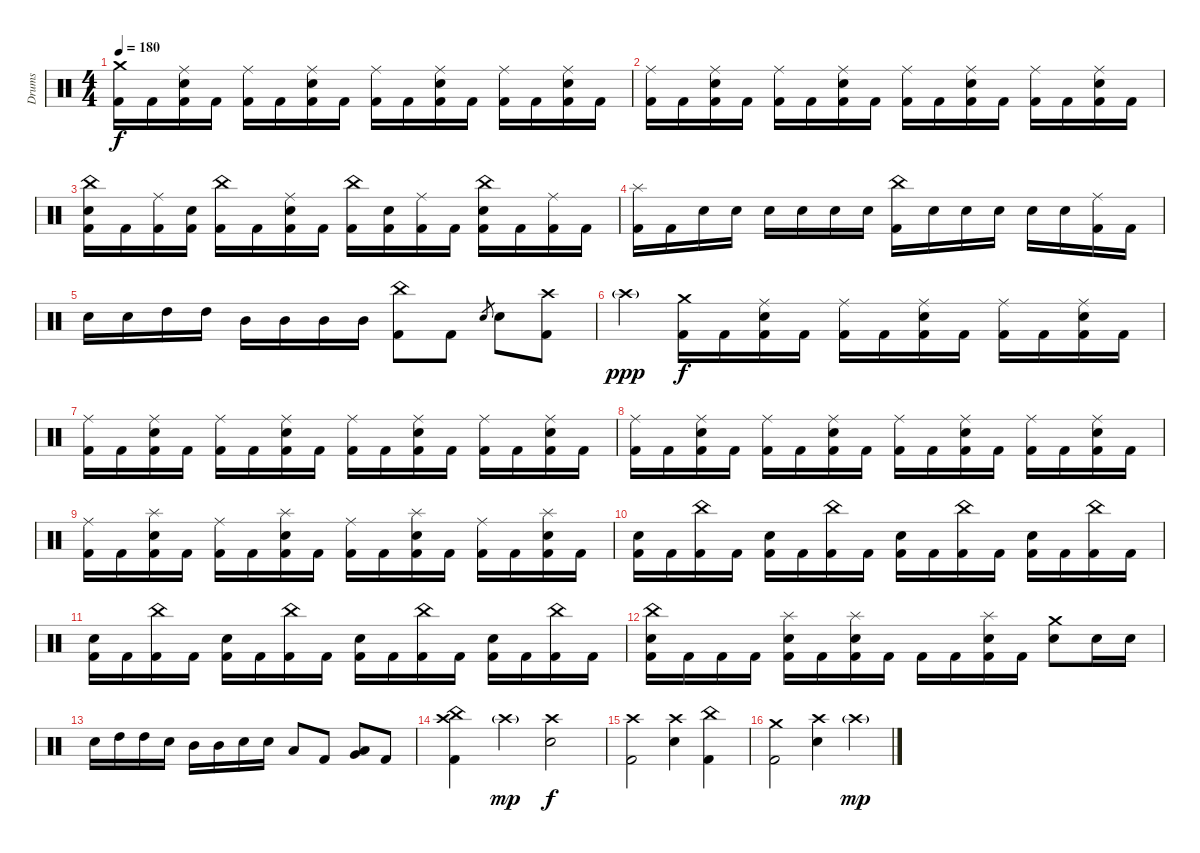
\track ("Drums" "Drums") {instrument percussion}
\staff {score}
\articulation defaults
\ts (4 4)
\tempo 180
\clef neutral
\ks c
("Crash medium (hit)" "Kick (hit) 2").16{dy f} "Kick (hit) 2".16 ("Ride (middle)" "Electric Snare (hit)" "Kick (hit) 2").16 "Kick (hit) 2".16 ("Ride (middle)" "Kick (hit) 2").16 "Kick (hit) 2".16 ("Ride (middle)" "Electric Snare (hit)" "Kick (hit) 2").16 "Kick (hit) 2".16 ("Ride (middle)" "Kick (hit) 2").16 "Kick (hit) 2".16 ("Ride (middle)" "Electric Snare (hit)" "Kick (hit) 2").16 "Kick (hit) 2".16 ("Ride (middle)" "Kick (hit) 2").16 "Kick (hit) 2".16 ("Ride (middle)" "Electric Snare (hit)" "Kick (hit) 2").16 "Kick (hit) 2".16 |
("Ride (middle)" "Kick (hit) 2").16 "Kick (hit) 2".16 ("Ride (middle)" "Electric Snare (hit)" "Kick (hit) 2").16 "Kick (hit) 2".16 ("Ride (middle)" "Kick (hit) 2").16 "Kick (hit) 2".16 ("Ride (middle)" "Electric Snare (hit)" "Kick (hit) 2").16 "Kick (hit) 2".16 ("Ride (middle)" "Kick (hit) 2").16 "Kick (hit) 2".16 ("Ride (middle)" "Electric Snare (hit)" "Kick (hit) 2").16 "Kick (hit) 2".16 ("Ride (middle)" "Kick (hit) 2").16 "Kick (hit) 2".16 ("Ride (middle)" "Electric Snare (hit)" "Kick (hit) 2").16 "Kick (hit) 2".16 |
("China (hit)" "Electric Snare (hit)" "Kick (hit) 2").16 "Kick (hit) 2".16 ("Ride (middle)" "Kick (hit) 2").16 ("Electric Snare (hit)" "Kick (hit) 2").16 ("China (hit)" "Kick (hit) 2").16 "Kick (hit) 2".16 ("Ride (middle)" "Electric Snare (hit)" "Kick (hit) 2").16 "Kick (hit) 2".16 ("China (hit)" "Kick (hit) 2").16 ("Electric Snare (hit)" "Kick (hit) 2").16 ("Ride (middle)" "Kick (hit) 2").16 "Kick (hit) 2".16 ("China (hit)" "Electric Snare (hit)" "Kick (hit) 2").16 "Kick (hit) 2".16 ("Ride (middle)" "Kick (hit) 2").16 "Kick (hit) 2".16 |
("Splash (hit)" "Kick (hit) 2").16 "Kick (hit) 2".16 "Electric Snare (hit)".16 "Electric Snare (hit)".16 "Electric Snare (hit)".16 "Electric Snare (hit)".16 "Electric Snare (hit)".16 "Electric Snare (hit)".16 ("China (hit)" "Kick (hit) 2").16 "Electric Snare (hit)".16 "Electric Snare (hit)".16 "Electric Snare (hit)".16 "Electric Snare (hit)".16 "Electric Snare (hit)".16 ("Ride (middle)" "Kick (hit) 2").16 "Kick (hit) 2".16 |
"Electric Snare (hit)".16 "Electric Snare (hit)".16 "High Tom (hit)".16 "High Tom (hit)".16 "Mid Tom (hit)".16 "Mid Tom (hit)".16 "Mid Tom (hit)".16 "Mid Tom (hit)".16 ("China (hit)" "Kick (hit) 2").8 "Kick (hit) 2".8 "Electric Snare (hit)".8{gr} "Electric Snare (hit)".8 ("Crash high (hit)" "Kick (hit) 2").8 |
"Crash high (hit)"{g}.4{dy ppp} ("Crash medium (hit)" "Kick (hit) 2").16{dy f} "Kick (hit) 2".16 ("Ride (middle)" "Electric Snare (hit)" "Kick (hit) 2").16 "Kick (hit) 2".16 ("Ride (middle)" "Kick (hit) 2").16 "Kick (hit) 2".16 ("Ride (middle)" "Electric Snare (hit)" "Kick (hit) 2").16 "Kick (hit) 2".16 ("Ride (middle)" "Kick (hit) 2").16 "Kick (hit) 2".16 ("Ride (middle)" "Electric Snare (hit)" "Kick (hit) 2").16 "Kick (hit) 2".16 |
("Ride (middle)" "Kick (hit) 2").16 "Kick (hit) 2".16 ("Ride (middle)" "Electric Snare (hit)" "Kick (hit) 2").16 "Kick (hit) 2".16 ("Ride (middle)" "Kick (hit) 2").16 "Kick (hit) 2".16 ("Ride (middle)" "Electric Snare (hit)" "Kick (hit) 2").16 "Kick (hit) 2".16 ("Ride (middle)" "Kick (hit) 2").16 "Kick (hit) 2".16 ("Ride (middle)" "Electric Snare (hit)" "Kick (hit) 2").16 "Kick (hit) 2".16 ("Ride (middle)" "Kick (hit) 2").16 "Kick (hit) 2".16 ("Ride (middle)" "Electric Snare (hit)" "Kick (hit) 2").16 "Kick (hit) 2".16 |
("Ride (middle)" "Kick (hit) 2").16 "Kick (hit) 2".16 ("Ride (middle)" "Electric Snare (hit)" "Kick (hit) 2").16 "Kick (hit) 2".16 ("Ride (middle)" "Kick (hit) 2").16 "Kick (hit) 2".16 ("Ride (middle)" "Electric Snare (hit)" "Kick (hit) 2").16 "Kick (hit) 2".16 ("Ride (middle)" "Kick (hit) 2").16 "Kick (hit) 2".16 ("Ride (middle)" "Electric Snare (hit)" "Kick (hit) 2").16 "Kick (hit) 2".16 ("Ride (middle)" "Kick (hit) 2").16 "Kick (hit) 2".16 ("Ride (middle)" "Electric Snare (hit)" "Kick (hit) 2").16 "Kick (hit) 2".16 |
("Ride (middle)" "Kick (hit) 2").16 "Kick (hit) 2".16 ("Splash (hit)" "Electric Snare (hit)" "Kick (hit) 2").16 "Kick (hit) 2".16 ("Ride (middle)" "Kick (hit) 2").16 "Kick (hit) 2".16 ("Splash (hit)" "Electric Snare (hit)" "Kick (hit) 2").16 "Kick (hit) 2".16 ("Ride (middle)" "Kick (hit) 2").16 "Kick (hit) 2".16 ("Splash (hit)" "Electric Snare (hit)" "Kick (hit) 2").16 "Kick (hit) 2".16 ("Ride (middle)" "Kick (hit) 2").16 "Kick (hit) 2".16 ("Splash (hit)" "Electric Snare (hit)" "Kick (hit) 2").16 "Kick (hit) 2".16 |
("Electric Snare (hit)" "Kick (hit) 2").16 "Kick (hit) 2".16 ("China (hit)" "Kick (hit) 2").16 "Kick (hit) 2".16 ("Electric Snare (hit)" "Kick (hit) 2").16 "Kick (hit) 2".16 ("China (hit)" "Kick (hit) 2").16 "Kick (hit) 2".16 ("Electric Snare (hit)" "Kick (hit) 2").16 "Kick (hit) 2".16 ("China (hit)" "Kick (hit) 2").16 "Kick (hit) 2".16 ("Electric Snare (hit)" "Kick (hit) 2").16 "Kick (hit) 2".16 ("China (hit)" "Kick (hit) 2").16 "Kick (hit) 2".16 |
("Electric Snare (hit)" "Kick (hit) 2").16 "Kick (hit) 2".16 ("China (hit)" "Kick (hit) 2").16 "Kick (hit) 2".16 ("Electric Snare (hit)" "Kick (hit) 2").16 "Kick (hit) 2".16 ("China (hit)" "Kick (hit) 2").16 "Kick (hit) 2".16 ("Electric Snare (hit)" "Kick (hit) 2").16 "Kick (hit) 2".16 ("China (hit)" "Kick (hit) 2").16 "Kick (hit) 2".16 ("Electric Snare (hit)" "Kick (hit) 2").16 "Kick (hit) 2".16 ("China (hit)" "Kick (hit) 2").16 "Kick (hit) 2".16 |
("China (hit)" "Electric Snare (hit)" "Kick (hit) 2").16 "Kick (hit) 2".16 "Kick (hit) 2".16 "Kick (hit) 2".16 ("Splash (hit)" "Electric Snare (hit)" "Kick (hit) 2").16 "Kick (hit) 2".16 ("Splash (hit)" "Electric Snare (hit)" "Kick (hit) 2").16 "Kick (hit) 2".16 "Kick (hit) 2".16 "Kick (hit) 2".16 ("Splash (hit)" "Electric Snare (hit)" "Kick (hit) 2").16 "Kick (hit) 2".16 ("Crash medium (hit)" "Electric Snare (hit)").8 "Electric Snare (hit)".16 "Electric Snare (hit)".16 |
"Electric Snare (hit)".16 "High Tom (hit)".16 "High Tom (hit)".16 "Electric Snare (hit)".16 "Mid Tom (hit)".16 "Mid Tom (hit)".16 "Electric Snare (hit)".16 "Electric Snare (hit)".16 "Low Tom (hit)".8 "Kick (hit) 2".8 ("Very Low Tom (hit)" "Low Floor Tom (hit)").8 "Kick (hit) 2".8 |
("Crash high (hit)" "China (hit)" "Kick (hit) 2").4 "Crash high (hit)"{g}.4{dy mp} ("Crash high (hit)" "Electric Snare (hit)").2{dy f} |
("Crash high (hit)" "Kick (hit) 2").2 ("Crash high (hit)" "Electric Snare (hit)").4 ("China (hit)" "Kick (hit) 2").4 |
("Crash medium (hit)" "Kick (hit) 2").2 ("Crash high (hit)" "Electric Snare (hit)").4 "Crash high (hit)"{g}.4{dy mp}
